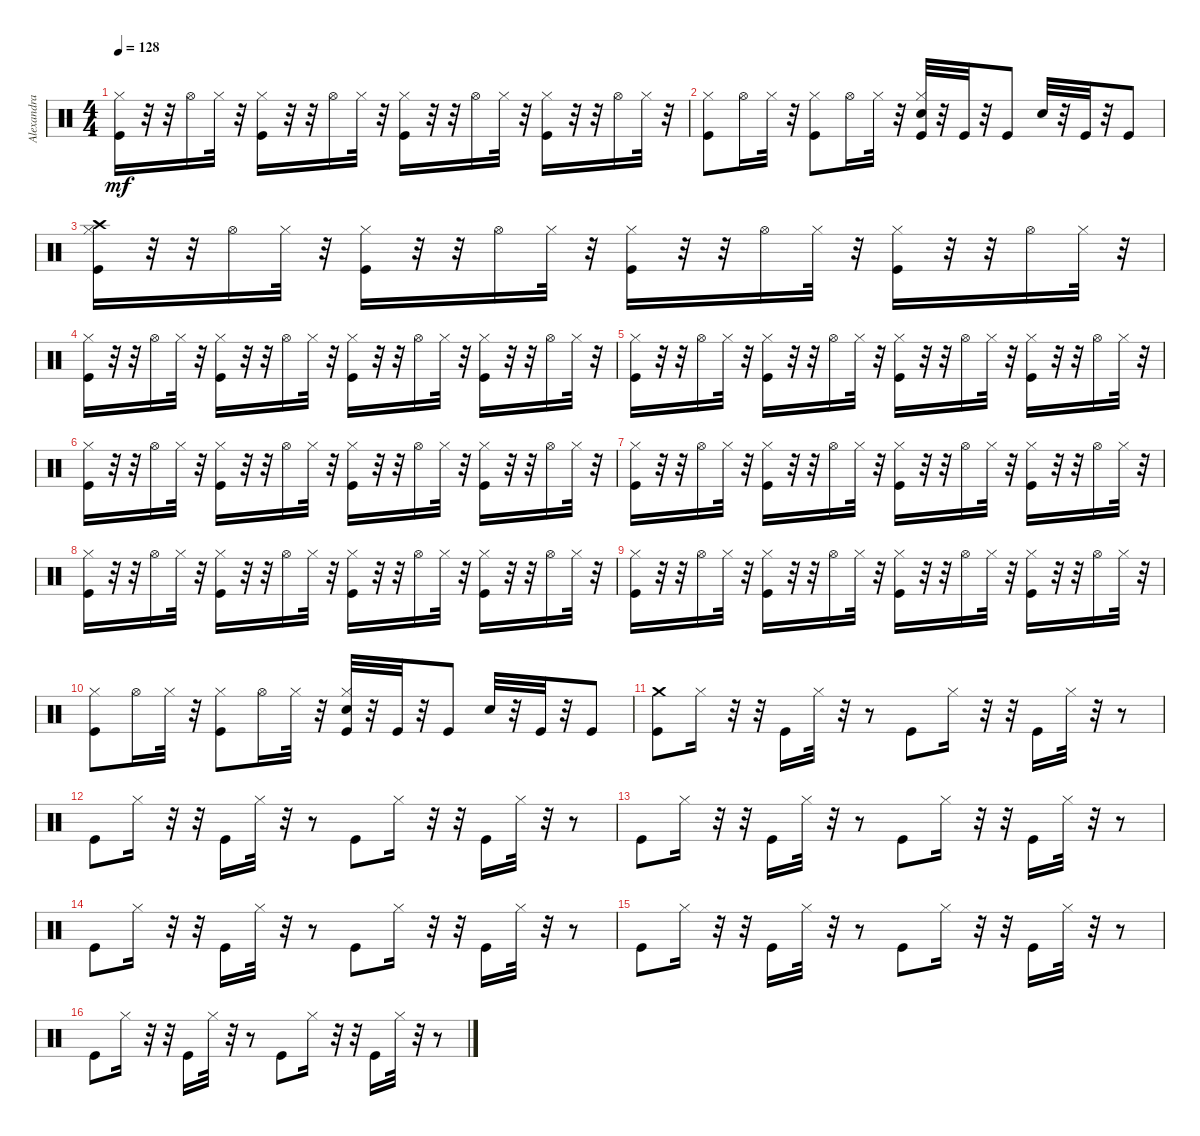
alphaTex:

\track ("Alexandra Stan - Mr Saxobeat" "Alexandra ") {instrument percussion}
\staff {score}
\articulation defaults
\ts (4 4)
\tempo 128
\clef neutral
\ks c
("Kick (hit)" "Hi-Hat (closed)").16{dy mf} r.32 r.32 "Hi-Hat (open)".16 "Hi-Hat (closed)".32 r.32 ("Kick (hit)" "Hi-Hat (closed)").16 r.32 r.32 "Hi-Hat (open)".16 "Hi-Hat (closed)".32 r.32 ("Kick (hit)" "Hi-Hat (closed)").16 r.32 r.32 "Hi-Hat (open)".16 "Hi-Hat (closed)".32 r.32 ("Kick (hit)" "Hi-Hat (closed)").16 r.32 r.32 "Hi-Hat (open)".16 "Hi-Hat (closed)".32 r.32 |
("Kick (hit)" "Hi-Hat (closed)").8 "Hi-Hat (open)".16 "Hi-Hat (closed)".32 r.32 ("Kick (hit)" "Hi-Hat (closed)").8 "Hi-Hat (open)".16 "Hi-Hat (closed)".32 r.32 ("Kick (hit)" "Snare (hit) 2" "Hi-Hat (closed)").32 r.32 "Kick (hit)".32 r.32 "Kick (hit)".8 "Snare (hit) 2".32 r.32 "Kick (hit)".32 r.32 "Kick (hit)".8 |
("Kick (hit)" "Hi-Hat (closed)" "Crash high (hit)").16 r.32 r.32 "Hi-Hat (open)".16 "Hi-Hat (closed)".32 r.32 ("Kick (hit)" "Hi-Hat (closed)").16 r.32 r.32 "Hi-Hat (open)".16 "Hi-Hat (closed)".32 r.32 ("Kick (hit)" "Hi-Hat (closed)").16 r.32 r.32 "Hi-Hat (open)".16 "Hi-Hat (closed)".32 r.32 ("Kick (hit)" "Hi-Hat (closed)").16 r.32 r.32 "Hi-Hat (open)".16 "Hi-Hat (closed)".32 r.32 |
("Kick (hit)" "Hi-Hat (closed)").16 r.32 r.32 "Hi-Hat (open)".16 "Hi-Hat (closed)".32 r.32 ("Kick (hit)" "Hi-Hat (closed)").16 r.32 r.32 "Hi-Hat (open)".16 "Hi-Hat (closed)".32 r.32 ("Kick (hit)" "Hi-Hat (closed)").16 r.32 r.32 "Hi-Hat (open)".16 "Hi-Hat (closed)".32 r.32 ("Kick (hit)" "Hi-Hat (closed)").16 r.32 r.32 "Hi-Hat (open)".16 "Hi-Hat (closed)".32 r.32 |
("Kick (hit)" "Hi-Hat (closed)").16 r.32 r.32 "Hi-Hat (open)".16 "Hi-Hat (closed)".32 r.32 ("Kick (hit)" "Hi-Hat (closed)").16 r.32 r.32 "Hi-Hat (open)".16 "Hi-Hat (closed)".32 r.32 ("Kick (hit)" "Hi-Hat (closed)").16 r.32 r.32 "Hi-Hat (open)".16 "Hi-Hat (closed)".32 r.32 ("Kick (hit)" "Hi-Hat (closed)").16 r.32 r.32 "Hi-Hat (open)".16 "Hi-Hat (closed)".32 r.32 |
("Kick (hit)" "Hi-Hat (closed)").16 r.32 r.32 "Hi-Hat (open)".16 "Hi-Hat (closed)".32 r.32 ("Kick (hit)" "Hi-Hat (closed)").16 r.32 r.32 "Hi-Hat (open)".16 "Hi-Hat (closed)".32 r.32 ("Kick (hit)" "Hi-Hat (closed)").16 r.32 r.32 "Hi-Hat (open)".16 "Hi-Hat (closed)".32 r.32 ("Kick (hit)" "Hi-Hat (closed)").16 r.32 r.32 "Hi-Hat (open)".16 "Hi-Hat (closed)".32 r.32 |
("Kick (hit)" "Hi-Hat (closed)").16 r.32 r.32 "Hi-Hat (open)".16 "Hi-Hat (closed)".32 r.32 ("Kick (hit)" "Hi-Hat (closed)").16 r.32 r.32 "Hi-Hat (open)".16 "Hi-Hat (closed)".32 r.32 ("Kick (hit)" "Hi-Hat (closed)").16 r.32 r.32 "Hi-Hat (open)".16 "Hi-Hat (closed)".32 r.32 ("Kick (hit)" "Hi-Hat (closed)").16 r.32 r.32 "Hi-Hat (open)".16 "Hi-Hat (closed)".32 r.32 |
("Kick (hit)" "Hi-Hat (closed)").16 r.32 r.32 "Hi-Hat (open)".16 "Hi-Hat (closed)".32 r.32 ("Kick (hit)" "Hi-Hat (closed)").16 r.32 r.32 "Hi-Hat (open)".16 "Hi-Hat (closed)".32 r.32 ("Kick (hit)" "Hi-Hat (closed)").16 r.32 r.32 "Hi-Hat (open)".16 "Hi-Hat (closed)".32 r.32 ("Kick (hit)" "Hi-Hat (closed)").16 r.32 r.32 "Hi-Hat (open)".16 "Hi-Hat (closed)".32 r.32 |
("Kick (hit)" "Hi-Hat (closed)").16 r.32 r.32 "Hi-Hat (open)".16 "Hi-Hat (closed)".32 r.32 ("Kick (hit)" "Hi-Hat (closed)").16 r.32 r.32 "Hi-Hat (open)".16 "Hi-Hat (closed)".32 r.32 ("Kick (hit)" "Hi-Hat (closed)").16 r.32 r.32 "Hi-Hat (open)".16 "Hi-Hat (closed)".32 r.32 ("Kick (hit)" "Hi-Hat (closed)").16 r.32 r.32 "Hi-Hat (open)".16 "Hi-Hat (closed)".32 r.32 |
("Kick (hit)" "Hi-Hat (closed)").8 "Hi-Hat (open)".16 "Hi-Hat (closed)".32 r.32 ("Kick (hit)" "Hi-Hat (closed)").8 "Hi-Hat (open)".16 "Hi-Hat (closed)".32 r.32 ("Kick (hit)" "Snare (hit) 2" "Hi-Hat (closed)").32 r.32 "Kick (hit)".32 r.32 "Kick (hit)".8 "Snare (hit) 2".32 r.32 "Kick (hit)".32 r.32 "Kick (hit)".8 |
("Kick (hit)" "Crash medium (hit)").8 "Hi-Hat (closed)".16 r.32 r.32 "Kick (hit)".16 "Hi-Hat (closed)".32 r.32 r.8 "Kick (hit)".8 "Hi-Hat (closed)".16 r.32 r.32 "Kick (hit)".16 "Hi-Hat (closed)".32 r.32 r.8 |
"Kick (hit)".8 "Hi-Hat (closed)".16 r.32 r.32 "Kick (hit)".16 "Hi-Hat (closed)".32 r.32 r.8 "Kick (hit)".8 "Hi-Hat (closed)".16 r.32 r.32 "Kick (hit)".16 "Hi-Hat (closed)".32 r.32 r.8 |
"Kick (hit)".8 "Hi-Hat (closed)".16 r.32 r.32 "Kick (hit)".16 "Hi-Hat (closed)".32 r.32 r.8 "Kick (hit)".8 "Hi-Hat (closed)".16 r.32 r.32 "Kick (hit)".16 "Hi-Hat (closed)".32 r.32 r.8 |
"Kick (hit)".8 "Hi-Hat (closed)".16 r.32 r.32 "Kick (hit)".16 "Hi-Hat (closed)".32 r.32 r.8 "Kick (hit)".8 "Hi-Hat (closed)".16 r.32 r.32 "Kick (hit)".16 "Hi-Hat (closed)".32 r.32 r.8 |
"Kick (hit)".8 "Hi-Hat (closed)".16 r.32 r.32 "Kick (hit)".16 "Hi-Hat (closed)".32 r.32 r.8 "Kick (hit)".8 "Hi-Hat (closed)".16 r.32 r.32 "Kick (hit)".16 "Hi-Hat (closed)".32 r.32 r.8 |
"Kick (hit)".8 "Hi-Hat (closed)".16 r.32 r.32 "Kick (hit)".16 "Hi-Hat (closed)".32 r.32 r.8 "Kick (hit)".8 "Hi-Hat (closed)".16 r.32 r.32 "Kick (hit)".16 "Hi-Hat (closed)".32 r.32 r.8
